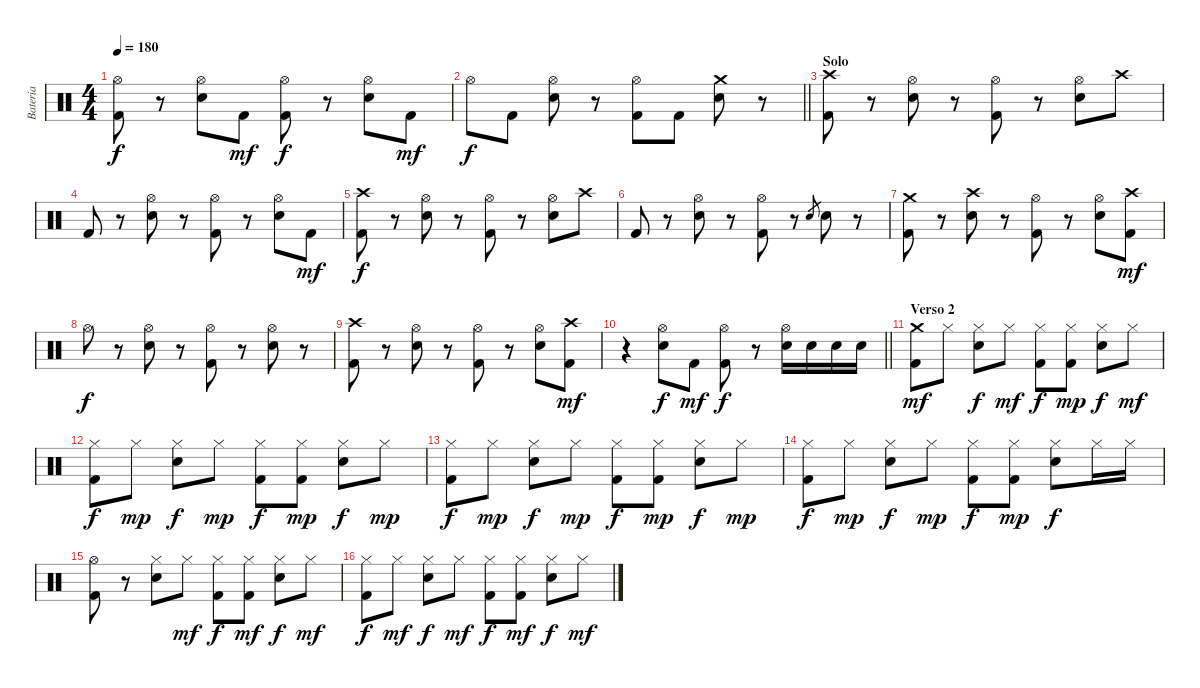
\track ("Bateria" "Bateria") {instrument percussion}
\staff {score}
\articulation defaults
\ts (4 4)
\tempo 180
\clef neutral
\ks c
("Hi-Hat (open)" "Kick (hit) 2").8{dy f} r.8 ("Hi-Hat (open)" "Electric Snare (hit)").8 "Kick (hit) 2".8{dy mf} ("Hi-Hat (open)" "Kick (hit) 2").8{dy f} r.8 ("Hi-Hat (open)" "Electric Snare (hit)").8 "Kick (hit) 2".8{dy mf} |
\barLineRight lightlight "Hi-Hat (open)".8{dy f} "Kick (hit) 2".8
("Hi-Hat (open)" "Electric Snare (hit)").8 r.8 ("Hi-Hat (open)" "Kick (hit) 2").8 "Kick (hit) 2".8 ("Crash medium (hit)" "Electric Snare (hit)").8 r.8 |
\section ("" "Solo")
("Crash high (hit)" "Kick (hit) 2").8 r.8 ("Hi-Hat (open)" "Electric Snare (hit)").8 r.8 ("Hi-Hat (open)" "Kick (hit) 2").8 r.8 ("Hi-Hat (open)" "Electric Snare (hit)").8 "Crash high (hit)".8 |
"Kick (hit) 2".8 r.8 ("Hi-Hat (open)" "Electric Snare (hit)").8 r.8 ("Hi-Hat (open)" "Kick (hit) 2").8 r.8 ("Hi-Hat (open)" "Electric Snare (hit)").8 "Kick (hit) 2".8{dy mf} |
("Crash high (hit)" "Kick (hit) 2").8{dy f} r.8 ("Hi-Hat (open)" "Electric Snare (hit)").8 r.8 ("Hi-Hat (open)" "Kick (hit) 2").8 r.8 ("Hi-Hat (open)" "Electric Snare (hit)").8 "Crash high (hit)".8 |
"Kick (hit) 2".8 r.8 ("Hi-Hat (open)" "Electric Snare (hit)").8 r.8 ("Hi-Hat (open)" "Kick (hit) 2").8 r.8 "Electric Snare (hit)".8{gr} "Electric Snare (hit)".8 r.8 |
("Crash medium (hit)" "Kick (hit) 2").8 r.8 ("Crash high (hit)" "Electric Snare (hit)").8 r.8 ("Hi-Hat (open)" "Kick (hit) 2").8 r.8 ("Hi-Hat (open)" "Electric Snare (hit)").8 ("Crash high (hit)" "Kick (hit) 2").8{dy mf} |
"Hi-Hat (open)".8{dy f} r.8 ("Hi-Hat (open)" "Electric Snare (hit)").8 r.8 ("Hi-Hat (open)" "Kick (hit) 2").8 r.8 ("Hi-Hat (open)" "Electric Snare (hit)").8 r.8 |
("Crash high (hit)" "Kick (hit) 2").8 r.8 ("Hi-Hat (open)" "Electric Snare (hit)").8 r.8 ("Hi-Hat (open)" "Kick (hit) 2").8 r.8 ("Hi-Hat (open)" "Electric Snare (hit)").8 ("Crash high (hit)" "Kick (hit) 2").8{dy mf} |
\barLineRight lightlight
r.4 ("Hi-Hat (open)" "Electric Snare (hit)").8{dy f} "Kick (hit) 2".8{dy mf} ("Hi-Hat (open)" "Kick (hit) 2").8{dy f} r.8 ("Hi-Hat (open)" "Electric Snare (hit)").16 "Electric Snare (hit)".16 "Electric Snare (hit)".16 "Electric Snare (hit)".16 |
\section ("" "Verso 2")
("Crash medium (hit)" "Kick (hit) 2").8{dy mf} "Hi-Hat (closed)".8 ("Hi-Hat (closed)" "Electric Snare (hit)").8{dy f} "Hi-Hat (closed)".8{dy mf} ("Hi-Hat (closed)" "Kick (hit) 2").8{dy f} ("Hi-Hat (closed)" "Kick (hit) 2").8{dy mp} ("Hi-Hat (closed)" "Electric Snare (hit)").8{dy f} "Hi-Hat (closed)".8{dy mf} |
("Hi-Hat (closed)" "Kick (hit) 2").8{dy f} "Hi-Hat (closed)".8{dy mp} ("Hi-Hat (closed)" "Electric Snare (hit)").8{dy f} "Hi-Hat (closed)".8{dy mp} ("Hi-Hat (closed)" "Kick (hit) 2").8{dy f} ("Hi-Hat (closed)" "Kick (hit) 2").8{dy mp} ("Hi-Hat (closed)" "Electric Snare (hit)").8{dy f} "Hi-Hat (closed)".8{dy mp} |
("Hi-Hat (closed)" "Kick (hit) 2").8{dy f} "Hi-Hat (closed)".8{dy mp} ("Hi-Hat (closed)" "Electric Snare (hit)").8{dy f} "Hi-Hat (closed)".8{dy mp} ("Hi-Hat (closed)" "Kick (hit) 2").8{dy f} ("Hi-Hat (closed)" "Kick (hit) 2").8{dy mp} ("Hi-Hat (closed)" "Electric Snare (hit)").8{dy f} "Hi-Hat (closed)".8{dy mp} |
("Hi-Hat (closed)" "Kick (hit) 2").8{dy f} "Hi-Hat (closed)".8{dy mp} ("Hi-Hat (closed)" "Electric Snare (hit)").8{dy f} "Hi-Hat (closed)".8{dy mp} ("Hi-Hat (closed)" "Kick (hit) 2").8{dy f} ("Hi-Hat (closed)" "Kick (hit) 2").8{dy mp} ("Hi-Hat (closed)" "Electric Snare (hit)").8{dy f} "Hi-Hat (closed)".16 "Hi-Hat (closed)".16 |
("Hi-Hat (open)" "Kick (hit) 2").8 r.8 ("Hi-Hat (closed)" "Electric Snare (hit)").8 "Hi-Hat (closed)".8{dy mf} ("Hi-Hat (closed)" "Kick (hit) 2").8{dy f} ("Hi-Hat (closed)" "Kick (hit) 2").8{dy mf} ("Hi-Hat (closed)" "Electric Snare (hit)").8{dy f} "Hi-Hat (closed)".8{dy mf} |
("Hi-Hat (closed)" "Kick (hit) 2").8{dy f} "Hi-Hat (closed)".8{dy mf} ("Hi-Hat (closed)" "Electric Snare (hit)").8{dy f} "Hi-Hat (closed)".8{dy mf} ("Hi-Hat (closed)" "Kick (hit) 2").8{dy f} ("Hi-Hat (closed)" "Kick (hit) 2").8{dy mf} ("Hi-Hat (closed)" "Electric Snare (hit)").8{dy f} "Hi-Hat (closed)".8{dy mf}
